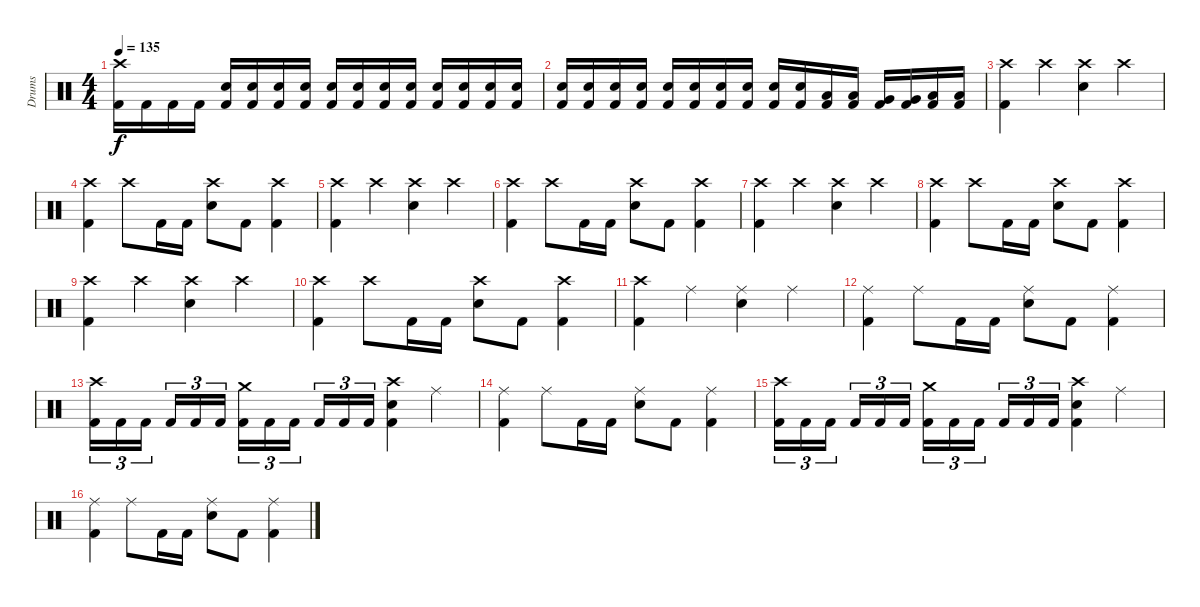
\track ("Drums" "Drums") {instrument percussion}
\staff {score}
\articulation defaults
\ts (4 4)
\tempo 135
\clef neutral
\ks c
("Crash high (hit)" "Kick (hit) 2").16{dy f} "Kick (hit) 2".16 "Kick (hit) 2".16 "Kick (hit) 2".16 ("Snare (hit) 2" "Kick (hit) 2").16 ("Snare (hit) 2" "Kick (hit) 2").16 ("Snare (hit) 2" "Kick (hit) 2").16 ("Snare (hit) 2" "Kick (hit) 2").16 ("Snare (hit) 2" "Kick (hit) 2").16 ("Snare (hit) 2" "Kick (hit) 2").16 ("Snare (hit) 2" "Kick (hit) 2").16 ("Snare (hit) 2" "Kick (hit) 2").16 ("Snare (hit) 2" "Kick (hit) 2").16 ("Snare (hit) 2" "Kick (hit) 2").16 ("Snare (hit) 2" "Kick (hit) 2").16 ("Snare (hit) 2" "Kick (hit) 2").16 |
("Snare (hit) 2" "Kick (hit) 2").16 ("Snare (hit) 2" "Kick (hit) 2").16 ("Snare (hit) 2" "Kick (hit) 2").16 ("Snare (hit) 2" "Kick (hit) 2").16 ("Snare (hit) 2" "Kick (hit) 2").16 ("Snare (hit) 2" "Kick (hit) 2").16 ("Snare (hit) 2" "Kick (hit) 2").16 ("Snare (hit) 2" "Kick (hit) 2").16 ("Snare (hit) 2" "Kick (hit) 2").16 ("Snare (hit) 2" "Kick (hit) 2").16 ("Low Tom (hit)" "Kick (hit) 2").16 ("Low Tom (hit)" "Kick (hit) 2").16 ("Very Low Tom (hit)" "Kick (hit) 2").16 ("Very Low Tom (hit)" "Kick (hit) 2").16 ("Low Floor Tom (hit)" "Kick (hit) 2").16 ("Low Floor Tom (hit)" "Kick (hit) 2").16 |
("Crash high (hit)" "Kick (hit) 2").4 "Crash high (hit)".4 ("Crash high (hit)" "Snare (hit) 2").4 "Crash high (hit)".4 |
("Crash high (hit)" "Kick (hit) 2").4 "Crash high (hit)".8 "Kick (hit) 2".16 "Kick (hit) 2".16 ("Crash high (hit)" "Snare (hit) 2").8 "Kick (hit) 2".8 ("Crash high (hit)" "Kick (hit) 2").4 |
("Crash high (hit)" "Kick (hit) 2").4 "Crash high (hit)".4 ("Crash high (hit)" "Snare (hit) 2").4 "Crash high (hit)".4 |
("Crash high (hit)" "Kick (hit) 2").4 "Crash high (hit)".8 "Kick (hit) 2".16 "Kick (hit) 2".16 ("Crash high (hit)" "Snare (hit) 2").8 "Kick (hit) 2".8 ("Crash high (hit)" "Kick (hit) 2").4 |
("Crash high (hit)" "Kick (hit) 2").4 "Crash high (hit)".4 ("Crash high (hit)" "Snare (hit) 2").4 "Crash high (hit)".4 |
("Crash high (hit)" "Kick (hit) 2").4 "Crash high (hit)".8 "Kick (hit) 2".16 "Kick (hit) 2".16 ("Crash high (hit)" "Snare (hit) 2").8 "Kick (hit) 2".8 ("Crash high (hit)" "Kick (hit) 2").4 |
("Crash high (hit)" "Kick (hit) 2").4 "Crash high (hit)".4 ("Crash high (hit)" "Snare (hit) 2").4 "Crash high (hit)".4 |
("Crash high (hit)" "Kick (hit) 2").4 "Crash high (hit)".8 "Kick (hit) 2".16 "Kick (hit) 2".16 ("Crash high (hit)" "Snare (hit) 2").8 "Kick (hit) 2".8 ("Crash high (hit)" "Kick (hit) 2").4 |
("Crash high (hit)" "Kick (hit) 2").4 "Ride (middle)".4 ("Ride (middle)" "Snare (hit) 2").4 "Ride (middle)".4 |
("Ride (middle)" "Kick (hit) 2").4 "Ride (middle)".8 "Kick (hit) 2".16 "Kick (hit) 2".16 ("Ride (middle)" "Snare (hit) 2").8 "Kick (hit) 2".8 ("Ride (middle)" "Kick (hit) 2").4 |
("Crash high (hit)" "Kick (hit) 2").16{tu (3 2)} "Kick (hit) 2".16{tu (3 2)} "Kick (hit) 2".16{tu (3 2) beam splitsecondary} "Kick (hit) 2".16{tu (3 2)} "Kick (hit) 2".16{tu (3 2)} "Kick (hit) 2".16{tu (3 2)} ("Crash medium (hit)" "Kick (hit) 2").16{tu (3 2)} "Kick (hit) 2".16{tu (3 2)} "Kick (hit) 2".16{tu (3 2) beam splitsecondary} "Kick (hit) 2".16{tu (3 2)} "Kick (hit) 2".16{tu (3 2)} "Kick (hit) 2".16{tu (3 2)} ("Crash high (hit)" "Snare (hit) 2" "Kick (hit) 2").4 "Ride (middle)".4 |
("Ride (middle)" "Kick (hit) 2").4 "Ride (middle)".8 "Kick (hit) 2".16 "Kick (hit) 2".16 ("Ride (middle)" "Snare (hit) 2").8 "Kick (hit) 2".8 ("Ride (middle)" "Kick (hit) 2").4 |
("Crash high (hit)" "Kick (hit) 2").16{tu (3 2)} "Kick (hit) 2".16{tu (3 2)} "Kick (hit) 2".16{tu (3 2) beam splitsecondary} "Kick (hit) 2".16{tu (3 2)} "Kick (hit) 2".16{tu (3 2)} "Kick (hit) 2".16{tu (3 2)} ("Crash medium (hit)" "Kick (hit) 2").16{tu (3 2)} "Kick (hit) 2".16{tu (3 2)} "Kick (hit) 2".16{tu (3 2) beam splitsecondary} "Kick (hit) 2".16{tu (3 2)} "Kick (hit) 2".16{tu (3 2)} "Kick (hit) 2".16{tu (3 2)} ("Crash high (hit)" "Snare (hit) 2" "Kick (hit) 2").4 "Ride (middle)".4 |
("Ride (middle)" "Kick (hit) 2").4 "Ride (middle)".8 "Kick (hit) 2".16 "Kick (hit) 2".16 ("Ride (middle)" "Snare (hit) 2").8 "Kick (hit) 2".8 ("Ride (middle)" "Kick (hit) 2").4
